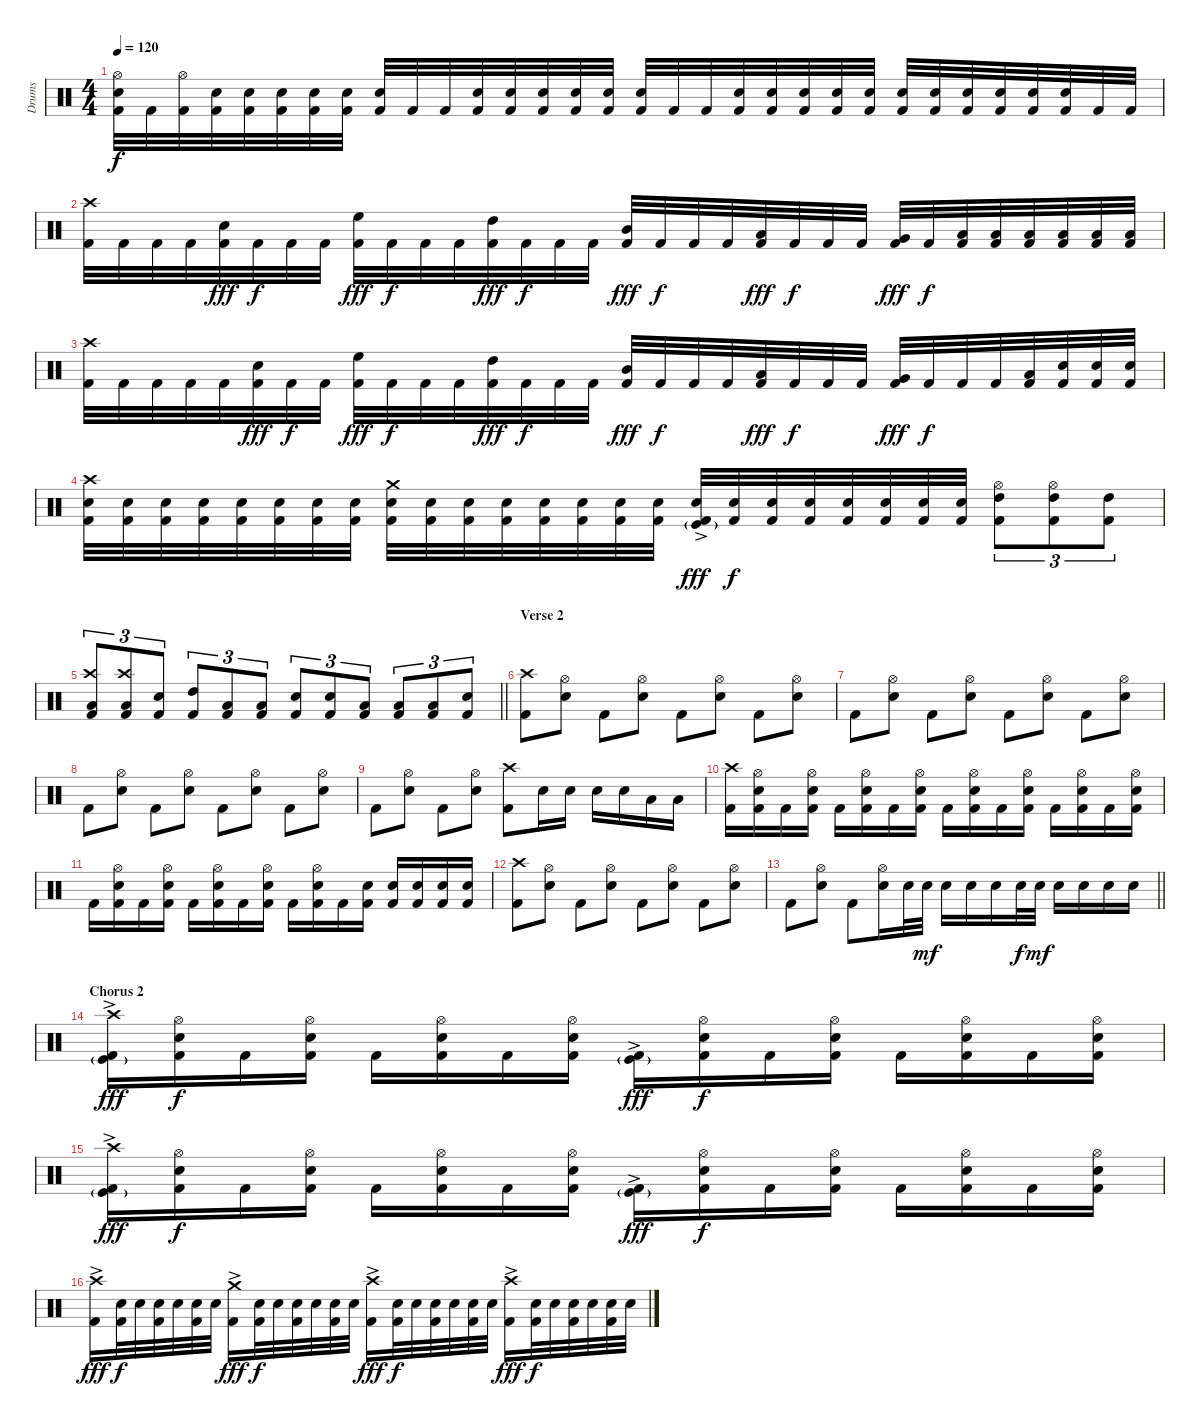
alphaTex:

\track ("Drums" "Drums") {instrument percussion}
\staff {score}
\articulation defaults
\ts (4 4)
\tempo 120
\clef neutral
\ks c
("Hi-Hat (open)" "Electric Snare (hit)" "Kick (hit) 2").32{dy f} "Kick (hit) 2".32 ("Hi-Hat (open)" "Kick (hit) 2").32 ("Electric Snare (hit)" "Kick (hit) 2").32 ("Electric Snare (hit)" "Kick (hit) 2").32 ("Electric Snare (hit)" "Kick (hit) 2").32 ("Electric Snare (hit)" "Kick (hit) 2").32 ("Electric Snare (hit)" "Kick (hit) 2").32 ("Electric Snare (hit)" "Kick (hit) 2").32 "Kick (hit) 2".32 "Kick (hit) 2".32 ("Electric Snare (hit)" "Kick (hit) 2").32 ("Electric Snare (hit)" "Kick (hit) 2").32 ("Electric Snare (hit)" "Kick (hit) 2").32 ("Electric Snare (hit)" "Kick (hit) 2").32 ("Electric Snare (hit)" "Kick (hit) 2").32 ("Electric Snare (hit)" "Kick (hit) 2").32 "Kick (hit) 2".32 "Kick (hit) 2".32 ("Electric Snare (hit)" "Kick (hit) 2").32 ("Electric Snare (hit)" "Kick (hit) 2").32 ("Electric Snare (hit)" "Kick (hit) 2").32 ("Electric Snare (hit)" "Kick (hit) 2").32 ("Electric Snare (hit)" "Kick (hit) 2").32 ("Electric Snare (hit)" "Kick (hit) 2").32 ("Electric Snare (hit)" "Kick (hit) 2").32 ("Electric Snare (hit)" "Kick (hit) 2").32 ("Electric Snare (hit)" "Kick (hit) 2").32 ("Electric Snare (hit)" "Kick (hit) 2").32 ("Electric Snare (hit)" "Kick (hit) 2").32 "Kick (hit) 2".32 "Kick (hit) 2".32 |
("Crash high (hit)" "Kick (hit) 2").32 "Kick (hit) 2".32 "Kick (hit) 2".32 "Kick (hit) 2".32 ("Electric Snare (hit)" "Kick (hit) 2").32{dy fff} "Kick (hit) 2".32{dy f} "Kick (hit) 2".32 "Kick (hit) 2".32 ("High Floor Tom (hit)" "Kick (hit) 2").32{dy fff} "Kick (hit) 2".32{dy f} "Kick (hit) 2".32 "Kick (hit) 2".32 ("High Tom (hit)" "Kick (hit) 2").32{dy fff} "Kick (hit) 2".32{dy f} "Kick (hit) 2".32 "Kick (hit) 2".32 ("Mid Tom (hit)" "Kick (hit) 2").32{dy fff} "Kick (hit) 2".32{dy f} "Kick (hit) 2".32 "Kick (hit) 2".32 ("Low Tom (hit)" "Kick (hit) 2").32{dy fff} "Kick (hit) 2".32{dy f} "Kick (hit) 2".32 "Kick (hit) 2".32 ("Very Low Tom (hit)" "Kick (hit) 2").32{dy fff} "Kick (hit) 2".32{dy f} ("Low Floor Tom (hit)" "Kick (hit) 2").32 ("Low Tom (hit)" "Kick (hit) 2").32 ("Low Floor Tom (hit)" "Kick (hit) 2").32 ("Low Tom (hit)" "Kick (hit) 2").32 ("Low Floor Tom (hit)" "Kick (hit) 2").32 ("Low Tom (hit)" "Kick (hit) 2").32 |
("Crash high (hit)" "Kick (hit) 2").32 "Kick (hit) 2".32 "Kick (hit) 2".32 "Kick (hit) 2".32 "Kick (hit) 2".32 ("Electric Snare (hit)" "Kick (hit) 2").32{dy fff} "Kick (hit) 2".32{dy f} "Kick (hit) 2".32 ("High Floor Tom (hit)" "Kick (hit) 2").32{dy fff} "Kick (hit) 2".32{dy f} "Kick (hit) 2".32 "Kick (hit) 2".32 ("High Tom (hit)" "Kick (hit) 2").32{dy fff} "Kick (hit) 2".32{dy f} "Kick (hit) 2".32 "Kick (hit) 2".32 ("Mid Tom (hit)" "Kick (hit) 2").32{dy fff} "Kick (hit) 2".32{dy f} "Kick (hit) 2".32 "Kick (hit) 2".32 ("Low Tom (hit)" "Kick (hit) 2").32{dy fff} "Kick (hit) 2".32{dy f} "Kick (hit) 2".32 "Kick (hit) 2".32 ("Very Low Tom (hit)" "Kick (hit) 2").32{dy fff} "Kick (hit) 2".32{dy f} "Kick (hit) 2".32 "Kick (hit) 2".32 ("Low Floor Tom (hit)" "Kick (hit) 2").32 ("Electric Snare (hit)" "Kick (hit) 2").32 ("Electric Snare (hit)" "Kick (hit) 2").32 ("Electric Snare (hit)" "Kick (hit) 2").32 |
("Crash high (hit)" "Electric Snare (hit)" "Kick (hit) 2").32 ("Electric Snare (hit)" "Kick (hit) 2").32 ("Electric Snare (hit)" "Kick (hit) 2").32 ("Electric Snare (hit)" "Kick (hit) 2").32 ("Electric Snare (hit)" "Kick (hit) 2").32 ("Electric Snare (hit)" "Kick (hit) 2").32 ("Electric Snare (hit)" "Kick (hit) 2").32 ("Electric Snare (hit)" "Kick (hit) 2").32 ("Crash medium (hit)" "Electric Snare (hit)" "Kick (hit) 2").32 ("Electric Snare (hit)" "Kick (hit) 2").32 ("Electric Snare (hit)" "Kick (hit) 2").32 ("Electric Snare (hit)" "Kick (hit) 2").32 ("Electric Snare (hit)" "Kick (hit) 2").32 ("Electric Snare (hit)" "Kick (hit) 2").32 ("Electric Snare (hit)" "Kick (hit) 2").32 ("Electric Snare (hit)" "Kick (hit) 2").32 ("Kick (hit)"{g} "Electric Snare (hit)" "Kick (hit) 2"{ac}).32{dy fff} ("Electric Snare (hit)" "Kick (hit) 2").32{dy f} ("Electric Snare (hit)" "Kick (hit) 2").32 ("Electric Snare (hit)" "Kick (hit) 2").32 ("Electric Snare (hit)" "Kick (hit) 2").32 ("Electric Snare (hit)" "Kick (hit) 2").32 ("Electric Snare (hit)" "Kick (hit) 2").32 ("Electric Snare (hit)" "Kick (hit) 2").32 ("Hi-Hat (open)" "High Tom (hit)" "Kick (hit) 2").8{tu (3 2)} ("Hi-Hat (open)" "High Tom (hit)" "Kick (hit) 2").8{tu (3 2)} ("High Tom (hit)" "Kick (hit) 2").8{tu (3 2)} |
\barLineRight lightlight
("Crash high (hit)" "Low Tom (hit)" "Kick (hit) 2").8{tu (3 2)} ("Crash high (hit)" "Low Floor Tom (hit)" "Kick (hit) 2").8{tu (3 2)} ("Electric Snare (hit)" "Kick (hit) 2").8{tu (3 2)} ("High Tom (hit)" "Kick (hit) 2").8{tu (3 2)} ("Low Tom (hit)" "Kick (hit) 2").8{tu (3 2)} ("Low Floor Tom (hit)" "Kick (hit) 2").8{tu (3 2)} ("Electric Snare (hit)" "Kick (hit) 2").8{tu (3 2)} ("Electric Snare (hit)" "Kick (hit) 2").8{tu (3 2)} ("Low Floor Tom (hit)" "Kick (hit) 2").8{tu (3 2)} ("Low Tom (hit)" "Kick (hit) 2").8{tu (3 2)} ("Low Floor Tom (hit)" "Kick (hit) 2").8{tu (3 2)} ("Electric Snare (hit)" "Kick (hit) 2").8{tu (3 2)} |
\section ("" "Verse 2")
("Crash high (hit)" "Kick (hit) 2").8 ("Hi-Hat (open)" "Electric Snare (hit)").8 "Kick (hit) 2".8 ("Hi-Hat (open)" "Electric Snare (hit)").8 "Kick (hit) 2".8 ("Hi-Hat (open)" "Electric Snare (hit)").8 "Kick (hit) 2".8 ("Hi-Hat (open)" "Electric Snare (hit)").8 |
"Kick (hit) 2".8 ("Hi-Hat (open)" "Electric Snare (hit)").8 "Kick (hit) 2".8 ("Hi-Hat (open)" "Electric Snare (hit)").8 "Kick (hit) 2".8 ("Hi-Hat (open)" "Electric Snare (hit)").8 "Kick (hit) 2".8 ("Hi-Hat (open)" "Electric Snare (hit)").8 |
"Kick (hit) 2".8 ("Hi-Hat (open)" "Electric Snare (hit)").8 "Kick (hit) 2".8 ("Hi-Hat (open)" "Electric Snare (hit)").8 "Kick (hit) 2".8 ("Hi-Hat (open)" "Electric Snare (hit)").8 "Kick (hit) 2".8 ("Hi-Hat (open)" "Electric Snare (hit)").8 |
"Kick (hit) 2".8 ("Hi-Hat (open)" "Electric Snare (hit)").8 "Kick (hit) 2".8 ("Hi-Hat (open)" "Electric Snare (hit)").8 ("Crash high (hit)" "Kick (hit) 2").8 "Electric Snare (hit)".16 "Electric Snare (hit)".16 "Electric Snare (hit)".16 "Electric Snare (hit)".16 "Low Tom (hit)".16 "Low Floor Tom (hit)".16 |
("Crash high (hit)" "Kick (hit) 2").16 ("Hi-Hat (open)" "Electric Snare (hit)" "Kick (hit) 2").16 "Kick (hit) 2".16 ("Hi-Hat (open)" "Electric Snare (hit)" "Kick (hit) 2").16 "Kick (hit) 2".16 ("Hi-Hat (open)" "Electric Snare (hit)" "Kick (hit) 2").16 "Kick (hit) 2".16 ("Hi-Hat (open)" "Electric Snare (hit)" "Kick (hit) 2").16 "Kick (hit) 2".16 ("Hi-Hat (open)" "Electric Snare (hit)" "Kick (hit) 2").16 "Kick (hit) 2".16 ("Hi-Hat (open)" "Electric Snare (hit)" "Kick (hit) 2").16 "Kick (hit) 2".16 ("Hi-Hat (open)" "Electric Snare (hit)" "Kick (hit) 2").16 "Kick (hit) 2".16 ("Hi-Hat (open)" "Electric Snare (hit)" "Kick (hit) 2").16 |
"Kick (hit) 2".16 ("Hi-Hat (open)" "Electric Snare (hit)" "Kick (hit) 2").16 "Kick (hit) 2".16 ("Hi-Hat (open)" "Electric Snare (hit)" "Kick (hit) 2").16 "Kick (hit) 2".16 ("Hi-Hat (open)" "Electric Snare (hit)" "Kick (hit) 2").16 "Kick (hit) 2".16 ("Hi-Hat (open)" "Electric Snare (hit)" "Kick (hit) 2").16 "Kick (hit) 2".16 ("Hi-Hat (open)" "Electric Snare (hit)" "Kick (hit) 2").16 "Kick (hit) 2".16 ("Electric Snare (hit)" "Kick (hit) 2").16 ("Electric Snare (hit)" "Kick (hit) 2").16 ("Electric Snare (hit)" "Kick (hit) 2").16 ("Electric Snare (hit)" "Kick (hit) 2").16 ("Electric Snare (hit)" "Kick (hit) 2").16 |
("Crash high (hit)" "Kick (hit) 2").8 ("Hi-Hat (open)" "Electric Snare (hit)").8 "Kick (hit) 2".8 ("Hi-Hat (open)" "Electric Snare (hit)").8 "Kick (hit) 2".8 ("Hi-Hat (open)" "Electric Snare (hit)").8 "Kick (hit) 2".8 ("Hi-Hat (open)" "Electric Snare (hit)").8 |
\barLineRight lightlight "Kick (hit) 2".8
("Hi-Hat (open)" "Electric Snare (hit)").8 "Kick (hit) 2".8 ("Hi-Hat (open)" "Electric Snare (hit)").16 "Electric Snare (hit)".32 "Electric Snare (hit)".32{dy mf} "Electric Snare (hit)".16 "Electric Snare (hit)".16 "Electric Snare (hit)".16 "Electric Snare (hit)".32{dy f} "Electric Snare (hit)".32{dy mf} "Electric Snare (hit)".16 "Electric Snare (hit)".16 "Electric Snare (hit)".16 "Electric Snare (hit)".16 |
\section ("" "Chorus 2")
("Crash high (hit)" "Kick (hit)"{g} "Kick (hit) 2"{ac}).16{dy fff} ("Hi-Hat (open)" "Electric Snare (hit)" "Kick (hit) 2").16{dy f} "Kick (hit) 2".16 ("Hi-Hat (open)" "Electric Snare (hit)" "Kick (hit) 2").16 "Kick (hit) 2".16 ("Hi-Hat (open)" "Electric Snare (hit)" "Kick (hit) 2").16 "Kick (hit) 2".16 ("Hi-Hat (open)" "Electric Snare (hit)" "Kick (hit) 2").16 ("Kick (hit)"{g} "Kick (hit) 2"{ac}).16{dy fff} ("Hi-Hat (open)" "Electric Snare (hit)" "Kick (hit) 2").16{dy f} "Kick (hit) 2".16 ("Hi-Hat (open)" "Electric Snare (hit)" "Kick (hit) 2").16 "Kick (hit) 2".16 ("Hi-Hat (open)" "Electric Snare (hit)" "Kick (hit) 2").16 "Kick (hit) 2".16 ("Hi-Hat (open)" "Electric Snare (hit)" "Kick (hit) 2").16 |
("Crash high (hit)" "Kick (hit)"{g} "Kick (hit) 2"{ac}).16{dy fff} ("Hi-Hat (open)" "Electric Snare (hit)" "Kick (hit) 2").16{dy f} "Kick (hit) 2".16 ("Hi-Hat (open)" "Electric Snare (hit)" "Kick (hit) 2").16 "Kick (hit) 2".16 ("Hi-Hat (open)" "Electric Snare (hit)" "Kick (hit) 2").16 "Kick (hit) 2".16 ("Hi-Hat (open)" "Electric Snare (hit)" "Kick (hit) 2").16 ("Kick (hit)"{g} "Kick (hit) 2"{ac}).16{dy fff} ("Hi-Hat (open)" "Electric Snare (hit)" "Kick (hit) 2").16{dy f} "Kick (hit) 2".16 ("Hi-Hat (open)" "Electric Snare (hit)" "Kick (hit) 2").16 "Kick (hit) 2".16 ("Hi-Hat (open)" "Electric Snare (hit)" "Kick (hit) 2").16 "Kick (hit) 2".16 ("Hi-Hat (open)" "Electric Snare (hit)" "Kick (hit) 2").16 |
("Crash high (hit)" "Kick (hit) 2"{ac}).16{dy fff} ("Electric Snare (hit)" "Kick (hit) 2").32{dy f} "Electric Snare (hit)".32 ("Electric Snare (hit)" "Kick (hit) 2").32 "Electric Snare (hit)".32 ("Electric Snare (hit)" "Kick (hit) 2").32 "Electric Snare (hit)".32 ("Crash medium (hit)" "Kick (hit) 2"{ac}).16{dy fff} ("Electric Snare (hit)" "Kick (hit) 2").32{dy f} "Electric Snare (hit)".32 ("Electric Snare (hit)" "Kick (hit) 2").32 "Electric Snare (hit)".32 ("Electric Snare (hit)" "Kick (hit) 2").32 "Electric Snare (hit)".32 ("Crash high (hit)" "Kick (hit) 2"{ac}).16{dy fff} ("Electric Snare (hit)" "Kick (hit) 2").32{dy f} "Electric Snare (hit)".32 ("Electric Snare (hit)" "Kick (hit) 2").32 "Electric Snare (hit)".32 ("Electric Snare (hit)" "Kick (hit) 2").32 "Electric Snare (hit)".32 ("Crash high (hit)" "Kick (hit) 2"{ac}).16{dy fff} ("Electric Snare (hit)" "Kick (hit) 2").32{dy f} "Electric Snare (hit)".32 ("Electric Snare (hit)" "Kick (hit) 2").32 "Electric Snare (hit)".32 ("Electric Snare (hit)" "Kick (hit) 2").32 "Electric Snare (hit)".32
